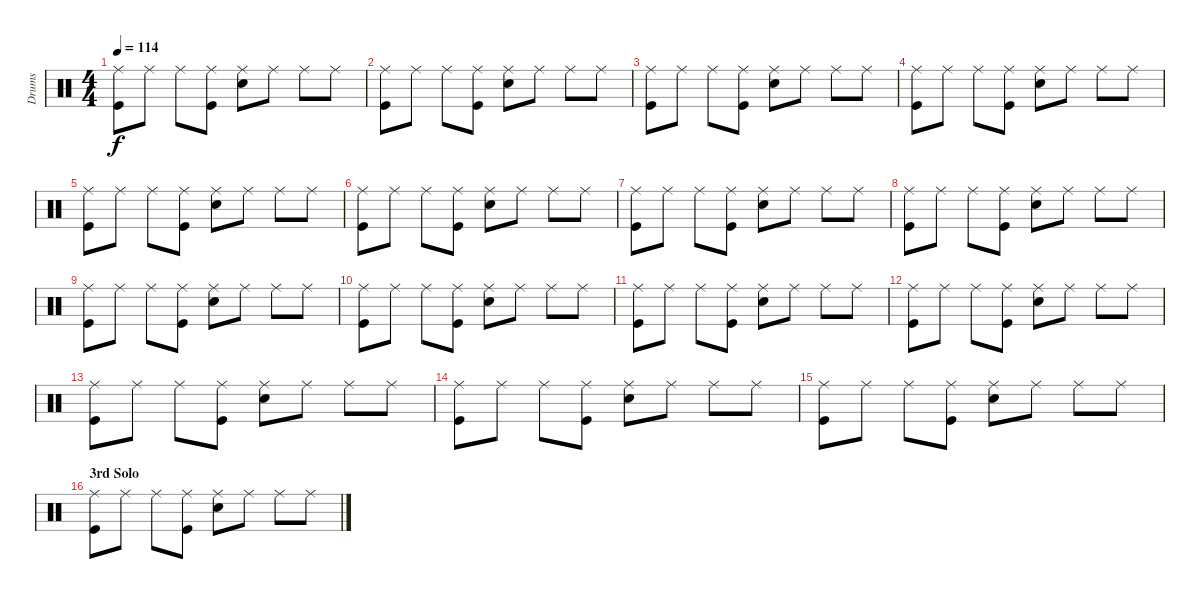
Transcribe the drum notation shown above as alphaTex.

\track ("Drums" "Drums") {instrument percussion}
\staff {score}
\articulation defaults
\ts (4 4)
\tempo 114
\clef neutral
\ks c
("Ride (middle)" "Kick (hit)").8{dy f} "Ride (middle)".8 "Ride (middle)".8 ("Ride (middle)" "Kick (hit)").8 ("Ride (middle)" "Snare (hit) 2").8 "Ride (middle)".8 "Ride (middle)".8 "Ride (middle)".8 |
("Ride (middle)" "Kick (hit)").8 "Ride (middle)".8 "Ride (middle)".8 ("Ride (middle)" "Kick (hit)").8 ("Ride (middle)" "Snare (hit) 2").8 "Ride (middle)".8 "Ride (middle)".8 "Ride (middle)".8 |
("Ride (middle)" "Kick (hit)").8 "Ride (middle)".8 "Ride (middle)".8 ("Ride (middle)" "Kick (hit)").8 ("Ride (middle)" "Snare (hit) 2").8 "Ride (middle)".8 "Ride (middle)".8 "Ride (middle)".8 |
("Ride (middle)" "Kick (hit)").8 "Ride (middle)".8 "Ride (middle)".8 ("Ride (middle)" "Kick (hit)").8 ("Ride (middle)" "Snare (hit) 2").8 "Ride (middle)".8 "Ride (middle)".8 "Ride (middle)".8 |
("Ride (middle)" "Kick (hit)").8 "Ride (middle)".8 "Ride (middle)".8 ("Ride (middle)" "Kick (hit)").8 ("Ride (middle)" "Snare (hit) 2").8 "Ride (middle)".8 "Ride (middle)".8 "Ride (middle)".8 |
("Ride (middle)" "Kick (hit)").8 "Ride (middle)".8 "Ride (middle)".8 ("Ride (middle)" "Kick (hit)").8 ("Ride (middle)" "Snare (hit) 2").8 "Ride (middle)".8 "Ride (middle)".8 "Ride (middle)".8 |
("Ride (middle)" "Kick (hit)").8 "Ride (middle)".8 "Ride (middle)".8 ("Ride (middle)" "Kick (hit)").8 ("Ride (middle)" "Snare (hit) 2").8 "Ride (middle)".8 "Ride (middle)".8 "Ride (middle)".8 |
("Ride (middle)" "Kick (hit)").8 "Ride (middle)".8 "Ride (middle)".8 ("Ride (middle)" "Kick (hit)").8 ("Ride (middle)" "Snare (hit) 2").8 "Ride (middle)".8 "Ride (middle)".8 "Ride (middle)".8 |
("Ride (middle)" "Kick (hit)").8 "Ride (middle)".8 "Ride (middle)".8 ("Ride (middle)" "Kick (hit)").8 ("Ride (middle)" "Snare (hit) 2").8 "Ride (middle)".8 "Ride (middle)".8 "Ride (middle)".8 |
("Ride (middle)" "Kick (hit)").8 "Ride (middle)".8 "Ride (middle)".8 ("Ride (middle)" "Kick (hit)").8 ("Ride (middle)" "Snare (hit) 2").8 "Ride (middle)".8 "Ride (middle)".8 "Ride (middle)".8 |
("Ride (middle)" "Kick (hit)").8 "Ride (middle)".8 "Ride (middle)".8 ("Ride (middle)" "Kick (hit)").8 ("Ride (middle)" "Snare (hit) 2").8 "Ride (middle)".8 "Ride (middle)".8 "Ride (middle)".8 |
("Ride (middle)" "Kick (hit)").8 "Ride (middle)".8 "Ride (middle)".8 ("Ride (middle)" "Kick (hit)").8 ("Ride (middle)" "Snare (hit) 2").8 "Ride (middle)".8 "Ride (middle)".8 "Ride (middle)".8 |
("Ride (middle)" "Kick (hit)").8 "Ride (middle)".8 "Ride (middle)".8 ("Ride (middle)" "Kick (hit)").8 ("Ride (middle)" "Snare (hit) 2").8 "Ride (middle)".8 "Ride (middle)".8 "Ride (middle)".8 |
("Ride (middle)" "Kick (hit)").8 "Ride (middle)".8 "Ride (middle)".8 ("Ride (middle)" "Kick (hit)").8 ("Ride (middle)" "Snare (hit) 2").8 "Ride (middle)".8 "Ride (middle)".8 "Ride (middle)".8 |
("Ride (middle)" "Kick (hit)").8 "Ride (middle)".8 "Ride (middle)".8 ("Ride (middle)" "Kick (hit)").8 ("Ride (middle)" "Snare (hit) 2").8 "Ride (middle)".8 "Ride (middle)".8 "Ride (middle)".8 |
\section ("" "3rd Solo")
("Ride (middle)" "Kick (hit)").8 "Ride (middle)".8 "Ride (middle)".8 ("Ride (middle)" "Kick (hit)").8 ("Ride (middle)" "Snare (hit) 2").8 "Ride (middle)".8 "Ride (middle)".8 "Ride (middle)".8
